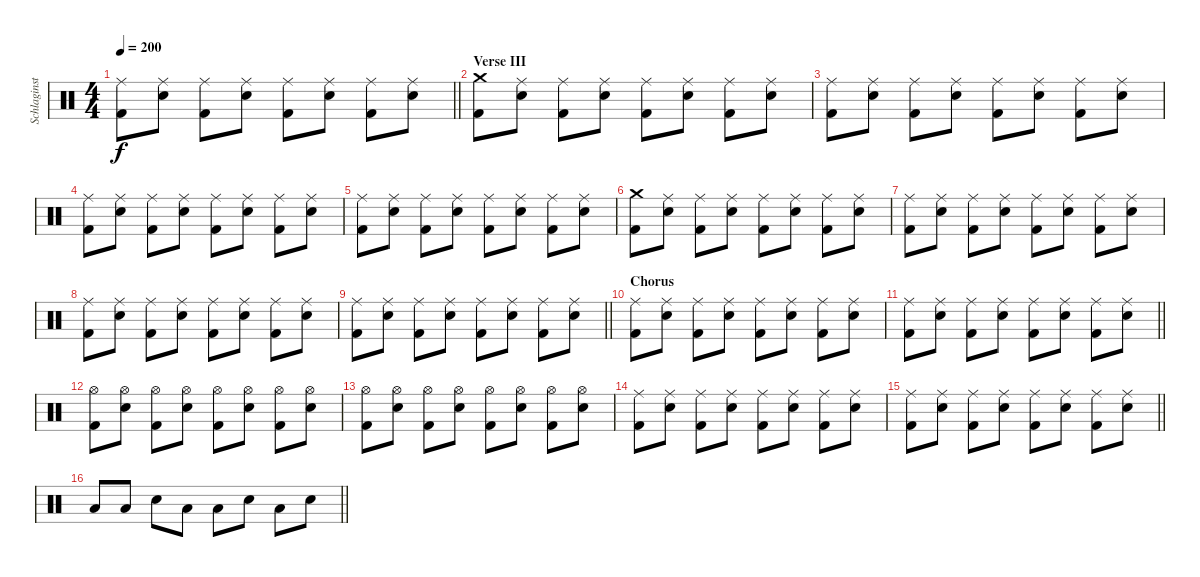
\track ("Schlaginstrumente - Auswahl" "Schlaginst") {instrument percussion}
\staff {score}
\articulation defaults
\ts (4 4)
\tempo 200
\clef neutral
\barLineRight lightlight
\ks c
("Ride (middle)" "Kick (hit) 2").8{dy f} ("Ride (middle)" "Electric Snare (hit)").8 ("Ride (middle)" "Kick (hit) 2").8 ("Ride (middle)" "Electric Snare (hit)").8 ("Ride (middle)" "Kick (hit) 2").8 ("Ride (middle)" "Electric Snare (hit)").8 ("Ride (middle)" "Kick (hit) 2").8 ("Ride (middle)" "Electric Snare (hit)").8 |
\section ("" "Verse III")
("Crash medium (hit)" "Kick (hit) 2").8 ("Ride (middle)" "Electric Snare (hit)").8 ("Ride (middle)" "Kick (hit) 2").8 ("Ride (middle)" "Electric Snare (hit)").8 ("Ride (middle)" "Kick (hit) 2").8 ("Ride (middle)" "Electric Snare (hit)").8 ("Ride (middle)" "Kick (hit) 2").8 ("Ride (middle)" "Electric Snare (hit)").8 |
("Ride (middle)" "Kick (hit) 2").8 ("Ride (middle)" "Electric Snare (hit)").8 ("Ride (middle)" "Kick (hit) 2").8 ("Ride (middle)" "Electric Snare (hit)").8 ("Ride (middle)" "Kick (hit) 2").8 ("Ride (middle)" "Electric Snare (hit)").8 ("Ride (middle)" "Kick (hit) 2").8 ("Ride (middle)" "Electric Snare (hit)").8 |
("Ride (middle)" "Kick (hit) 2").8 ("Ride (middle)" "Electric Snare (hit)").8 ("Ride (middle)" "Kick (hit) 2").8 ("Ride (middle)" "Electric Snare (hit)").8 ("Ride (middle)" "Kick (hit) 2").8 ("Ride (middle)" "Electric Snare (hit)").8 ("Ride (middle)" "Kick (hit) 2").8 ("Ride (middle)" "Electric Snare (hit)").8 |
("Ride (middle)" "Kick (hit) 2").8 ("Ride (middle)" "Electric Snare (hit)").8 ("Ride (middle)" "Kick (hit) 2").8 ("Ride (middle)" "Electric Snare (hit)").8 ("Ride (middle)" "Kick (hit) 2").8 ("Ride (middle)" "Electric Snare (hit)").8 ("Ride (middle)" "Kick (hit) 2").8 ("Ride (middle)" "Electric Snare (hit)").8 |
("Crash medium (hit)" "Kick (hit) 2").8 ("Ride (middle)" "Electric Snare (hit)").8 ("Ride (middle)" "Kick (hit) 2").8 ("Ride (middle)" "Electric Snare (hit)").8 ("Ride (middle)" "Kick (hit) 2").8 ("Ride (middle)" "Electric Snare (hit)").8 ("Ride (middle)" "Kick (hit) 2").8 ("Ride (middle)" "Electric Snare (hit)").8 |
("Ride (middle)" "Kick (hit) 2").8 ("Ride (middle)" "Electric Snare (hit)").8 ("Ride (middle)" "Kick (hit) 2").8 ("Ride (middle)" "Electric Snare (hit)").8 ("Ride (middle)" "Kick (hit) 2").8 ("Ride (middle)" "Electric Snare (hit)").8 ("Ride (middle)" "Kick (hit) 2").8 ("Ride (middle)" "Electric Snare (hit)").8 |
("Ride (middle)" "Kick (hit) 2").8 ("Ride (middle)" "Electric Snare (hit)").8 ("Ride (middle)" "Kick (hit) 2").8 ("Ride (middle)" "Electric Snare (hit)").8 ("Ride (middle)" "Kick (hit) 2").8 ("Ride (middle)" "Electric Snare (hit)").8 ("Ride (middle)" "Kick (hit) 2").8 ("Ride (middle)" "Electric Snare (hit)").8 |
\barLineRight lightlight
("Ride (middle)" "Kick (hit) 2").8 ("Ride (middle)" "Electric Snare (hit)").8 ("Ride (middle)" "Kick (hit) 2").8 ("Ride (middle)" "Electric Snare (hit)").8 ("Ride (middle)" "Kick (hit) 2").8 ("Ride (middle)" "Electric Snare (hit)").8 ("Ride (middle)" "Kick (hit) 2").8 ("Ride (middle)" "Electric Snare (hit)").8 |
\section ("" "Chorus")
("Ride (middle)" "Kick (hit) 2").8 ("Ride (middle)" "Electric Snare (hit)").8 ("Ride (middle)" "Kick (hit) 2").8 ("Ride (middle)" "Electric Snare (hit)").8 ("Ride (middle)" "Kick (hit) 2").8 ("Ride (middle)" "Electric Snare (hit)").8 ("Ride (middle)" "Kick (hit) 2").8 ("Ride (middle)" "Electric Snare (hit)").8 |
\barLineRight lightlight
("Ride (middle)" "Kick (hit) 2").8 ("Ride (middle)" "Electric Snare (hit)").8 ("Ride (middle)" "Kick (hit) 2").8 ("Ride (middle)" "Electric Snare (hit)").8 ("Ride (middle)" "Kick (hit) 2").8 ("Ride (middle)" "Electric Snare (hit)").8 ("Ride (middle)" "Kick (hit) 2").8 ("Ride (middle)" "Electric Snare (hit)").8 |
("Hi-Hat (open)" "Kick (hit) 2").8 ("Hi-Hat (open)" "Electric Snare (hit)").8 ("Hi-Hat (open)" "Kick (hit) 2").8 ("Hi-Hat (open)" "Electric Snare (hit)").8 ("Hi-Hat (open)" "Kick (hit) 2").8 ("Hi-Hat (open)" "Electric Snare (hit)").8 ("Hi-Hat (open)" "Kick (hit) 2").8 ("Hi-Hat (open)" "Electric Snare (hit)").8 |
("Hi-Hat (open)" "Kick (hit) 2").8 ("Hi-Hat (open)" "Electric Snare (hit)").8 ("Hi-Hat (open)" "Kick (hit) 2").8 ("Hi-Hat (open)" "Electric Snare (hit)").8 ("Hi-Hat (open)" "Kick (hit) 2").8 ("Hi-Hat (open)" "Electric Snare (hit)").8 ("Hi-Hat (open)" "Kick (hit) 2").8 ("Hi-Hat (open)" "Electric Snare (hit)").8 |
("Ride (middle)" "Kick (hit) 2").8 ("Ride (middle)" "Electric Snare (hit)").8 ("Ride (middle)" "Kick (hit) 2").8 ("Ride (middle)" "Electric Snare (hit)").8 ("Ride (middle)" "Kick (hit) 2").8 ("Ride (middle)" "Electric Snare (hit)").8 ("Ride (middle)" "Kick (hit) 2").8 ("Ride (middle)" "Electric Snare (hit)").8 |
\barLineRight lightlight
("Ride (middle)" "Kick (hit) 2").8 ("Ride (middle)" "Electric Snare (hit)").8 ("Ride (middle)" "Kick (hit) 2").8 ("Ride (middle)" "Electric Snare (hit)").8 ("Ride (middle)" "Kick (hit) 2").8 ("Ride (middle)" "Electric Snare (hit)").8 ("Ride (middle)" "Kick (hit) 2").8 ("Ride (middle)" "Electric Snare (hit)").8 |
\barLineRight lightlight "Low Tom (hit)".8 "Low Tom (hit)".8 "Electric Snare (hit)".8 "Low Tom (hit)".8 "Low Tom (hit)".8 "Electric Snare (hit)".8 "Low Tom (hit)".8 "Electric Snare (hit)".8
